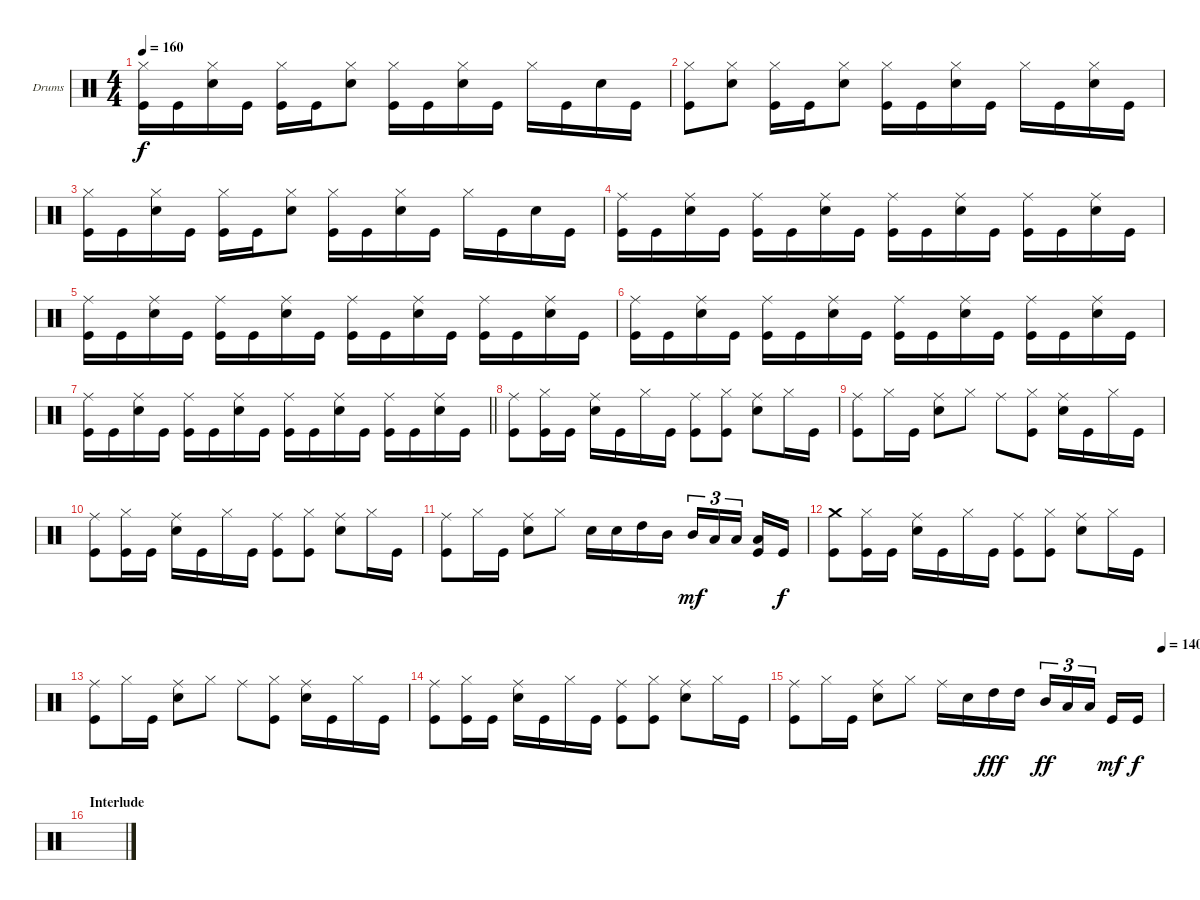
\defaultSystemsLayout 4
\bracketExtendMode groupsimilarinstruments
\firstSystemTrackNameOrientation horizontal
\otherSystemsTrackNameOrientation horizontal
\track ("Drums" "Drums") {instrument percussion}
\staff {score}
\articulation defaults
\ts (4 4)
\tempo 160
\clef neutral
\scale
0.333333
\ks aminor
("Kick (hit)" "Hi-Hat (closed)").16{dy f} "Kick (hit)".16 ("Snare (hit) 2" "Hi-Hat (closed)").16 "Kick (hit)".16 ("Kick (hit)" "Hi-Hat (closed)").16 "Kick (hit)".16 ("Snare (hit) 2" "Hi-Hat (closed)").8 ("Kick (hit)" "Hi-Hat (closed)").16 "Kick (hit)".16 ("Snare (hit) 2" "Hi-Hat (closed)").16 "Kick (hit)".16 "Hi-Hat (closed)".16 "Kick (hit)".16 "Snare (hit) 2".16 "Kick (hit)".16 |
\scale
0.333333 ("Kick (hit)" "Hi-Hat (closed)").8 ("Snare (hit) 2" "Hi-Hat (closed)").8 ("Kick (hit)" "Hi-Hat (closed)").16 "Kick (hit)".16 ("Snare (hit) 2" "Hi-Hat (closed)").8 ("Kick (hit)" "Hi-Hat (closed)").16 "Kick (hit)".16 ("Snare (hit) 2" "Hi-Hat (closed)").16 "Kick (hit)".16 "Hi-Hat (closed)".16 "Kick (hit)".16 ("Snare (hit) 2" "Hi-Hat (closed)").16 "Kick (hit)".16 |
\scale
0.333333 ("Kick (hit)" "Hi-Hat (closed)").16 "Kick (hit)".16 ("Snare (hit) 2" "Hi-Hat (closed)").16 "Kick (hit)".16 ("Kick (hit)" "Hi-Hat (closed)").16 "Kick (hit)".16 ("Snare (hit) 2" "Hi-Hat (closed)").8 ("Kick (hit)" "Hi-Hat (closed)").16 "Kick (hit)".16 ("Snare (hit) 2" "Hi-Hat (closed)").16 "Kick (hit)".16 "Hi-Hat (closed)".16 "Kick (hit)".16 "Snare (hit) 2".16 "Kick (hit)".16 |
\scale
0.333333 ("Kick (hit)" "Ride (middle)").16 "Kick (hit)".16 ("Snare (hit) 2" "Ride (middle)").16 "Kick (hit)".16 ("Kick (hit)" "Ride (middle)").16 "Kick (hit)".16 ("Snare (hit) 2" "Ride (middle)").16 "Kick (hit)".16 ("Kick (hit)" "Ride (middle)").16 "Kick (hit)".16 ("Snare (hit) 2" "Ride (middle)").16 "Kick (hit)".16 ("Kick (hit)" "Ride (middle)").16 "Kick (hit)".16 ("Snare (hit) 2" "Ride (middle)").16 "Kick (hit)".16 |
\scale
0.333333 ("Kick (hit)" "Ride (middle)").16 "Kick (hit)".16 ("Snare (hit) 2" "Ride (middle)").16 "Kick (hit)".16 ("Kick (hit)" "Ride (middle)").16 "Kick (hit)".16 ("Snare (hit) 2" "Ride (middle)").16 "Kick (hit)".16 ("Kick (hit)" "Ride (middle)").16 "Kick (hit)".16 ("Snare (hit) 2" "Ride (middle)").16 "Kick (hit)".16 ("Kick (hit)" "Ride (middle)").16 "Kick (hit)".16 ("Snare (hit) 2" "Ride (middle)").16 "Kick (hit)".16 |
\scale
0.333333 ("Kick (hit)" "Ride (middle)").16 "Kick (hit)".16 ("Snare (hit) 2" "Ride (middle)").16 "Kick (hit)".16 ("Kick (hit)" "Ride (middle)").16 "Kick (hit)".16 ("Snare (hit) 2" "Ride (middle)").16 "Kick (hit)".16 ("Kick (hit)" "Ride (middle)").16 "Kick (hit)".16 ("Snare (hit) 2" "Ride (middle)").16 "Kick (hit)".16 ("Kick (hit)" "Ride (middle)").16 "Kick (hit)".16 ("Snare (hit) 2" "Ride (middle)").16 "Kick (hit)".16 |
\scale
0.333333
\barLineRight lightlight
("Kick (hit)" "Ride (middle)").16 "Kick (hit)".16 ("Snare (hit) 2" "Ride (middle)").16 "Kick (hit)".16 ("Kick (hit)" "Ride (middle)").16 "Kick (hit)".16 ("Snare (hit) 2" "Ride (middle)").16 "Kick (hit)".16 ("Kick (hit)" "Ride (middle)").16 "Kick (hit)".16 ("Snare (hit) 2" "Ride (middle)").16 "Kick (hit)".16 ("Kick (hit)" "Ride (middle)").16 "Kick (hit)".16 ("Snare (hit) 2" "Ride (middle)").16 "Kick (hit)".16 |
\scale
0.333333 ("Kick (hit)" "Ride (middle)").8 ("Kick (hit)" "Hi-Hat (closed)").16 "Kick (hit)".16 ("Snare (hit) 2" "Ride (middle)").16 "Kick (hit)".16 "Hi-Hat (closed)".16 "Kick (hit)".16 ("Kick (hit)" "Ride (middle)").8 ("Kick (hit)" "Hi-Hat (closed)").8 ("Snare (hit) 2" "Ride (middle)").8 "Hi-Hat (closed)".16 "Kick (hit)".16 |
\scale
0.333333 ("Kick (hit)" "Ride (middle)").8 "Hi-Hat (closed)".16 "Kick (hit)".16 ("Snare (hit) 2" "Ride (middle)").8 "Hi-Hat (closed)".8 "Ride (middle)".8 ("Kick (hit)" "Hi-Hat (closed)").8 ("Snare (hit) 2" "Ride (middle)").16 "Kick (hit)".16 "Hi-Hat (closed)".16 "Kick (hit)".16 |
\scale
0.333333 ("Kick (hit)" "Ride (middle)").8 ("Kick (hit)" "Hi-Hat (closed)").16 "Kick (hit)".16 ("Snare (hit) 2" "Ride (middle)").16 "Kick (hit)".16 "Hi-Hat (closed)".16 "Kick (hit)".16 ("Kick (hit)" "Ride (middle)").8 ("Kick (hit)" "Hi-Hat (closed)").8 ("Snare (hit) 2" "Ride (middle)").8 "Hi-Hat (closed)".16 "Kick (hit)".16 |
\scale
0.333333 ("Kick (hit)" "Ride (middle)").8 "Hi-Hat (closed)".16 "Kick (hit)".16 ("Snare (hit) 2" "Ride (middle)").8 "Hi-Hat (closed)".8 "Snare (hit) 2".16 "Snare (hit) 2".16 "High Tom (hit)".16 "Mid Tom (hit)".16 "Mid Tom (hit)".16{tu (3 2) dy mf} "Low Tom (hit)".16{tu (3 2)} "Low Tom (hit)".16{tu (3 2)} ("Kick (hit)" "Low Tom (hit)").16 "Kick (hit)".16{dy f} |
\scale
0.333333 ("Kick (hit)" "Crash medium (hit)").8 ("Kick (hit)" "Hi-Hat (closed)").16 "Kick (hit)".16 ("Snare (hit) 2" "Ride (middle)").16 "Kick (hit)".16 "Hi-Hat (closed)".16 "Kick (hit)".16 ("Kick (hit)" "Ride (middle)").8 ("Kick (hit)" "Hi-Hat (closed)").8 ("Snare (hit) 2" "Ride (middle)").8 "Hi-Hat (closed)".16 "Kick (hit)".16 |
\scale
0.333333 ("Kick (hit)" "Ride (middle)").8 "Hi-Hat (closed)".16 "Kick (hit)".16 ("Snare (hit) 2" "Ride (middle)").8 "Hi-Hat (closed)".8 "Ride (middle)".8 ("Kick (hit)" "Hi-Hat (closed)").8 ("Snare (hit) 2" "Ride (middle)").16 "Kick (hit)".16 "Hi-Hat (closed)".16 "Kick (hit)".16 |
\scale
0.333333 ("Kick (hit)" "Ride (middle)").8 ("Kick (hit)" "Hi-Hat (closed)").16 "Kick (hit)".16 ("Snare (hit) 2" "Ride (middle)").16 "Kick (hit)".16 "Hi-Hat (closed)".16 "Kick (hit)".16 ("Kick (hit)" "Ride (middle)").8 ("Kick (hit)" "Hi-Hat (closed)").8 ("Snare (hit) 2" "Ride (middle)").8 "Hi-Hat (closed)".16 "Kick (hit)".16 |
\tempo (140 1)
\scale
0.333333 ("Kick (hit)" "Ride (middle)").8 "Hi-Hat (closed)".16 "Kick (hit)".16 ("Snare (hit) 2" "Ride (middle)").8 "Hi-Hat (closed)".8 "Ride (middle)".16 "Snare (hit) 2".16 "High Tom (hit)".16{dy fff} "High Tom (hit)".16 "Mid Tom (hit)".16{tu (3 2) dy ff} "Low Tom (hit)".16{tu (3 2)} "Low Tom (hit)".16{tu (3 2)} "Kick (hit)".16{dy mf} "Kick (hit)".16{dy f} |
\section ("" "Interlude")
\scale
0.333333
